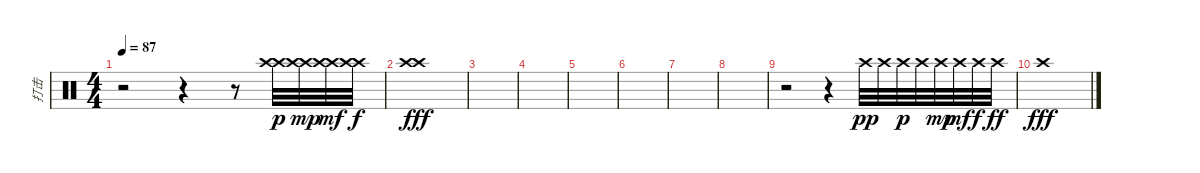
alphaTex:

\track ("打击" "打击") {instrument percussion}
\staff {score}
\articulation defaults
\ts (4 4)
\tempo 87
\clef neutral
\ks c
r.2{dy p} r.4 r.8 ("Crash high (hit)" "Crash high (hit)").32 ("Crash high (hit)" "Crash high (hit)").32{dy mp} ("Crash high (hit)" "Crash high (hit)").32{dy mf} ("Crash high (hit)" "Crash high (hit)").32{dy f} |
("Crash high (hit)" "Crash high (hit)").1{dy fff} |
|
|
|
|
|
|
r.2 r.4 "Crash high (hit)".32{dy pp} "Crash high (hit)".32 "Crash high (hit)".32{dy p} "Crash high (hit)".32 "Crash high (hit)".32{dy mp} "Crash high (hit)".32{dy mf} "Crash high (hit)".32{dy f} "Crash high (hit)".32{dy ff} |
"Crash high (hit)".1{dy fff}
